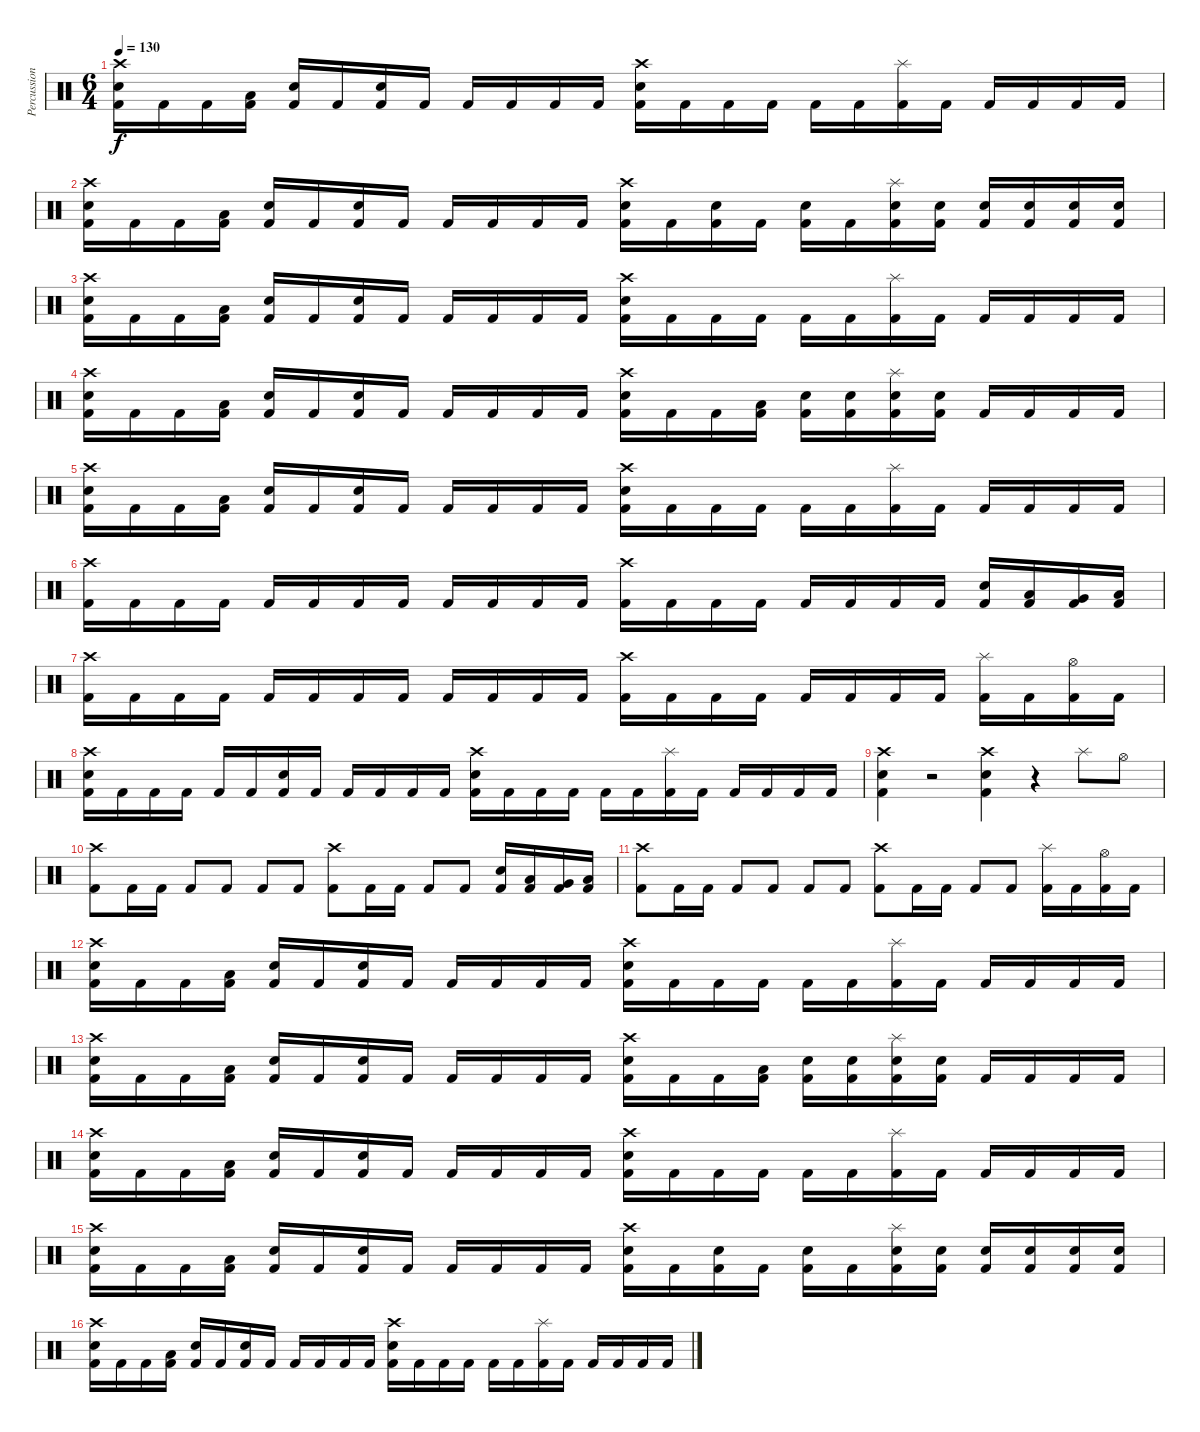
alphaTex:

\track ("Percussion" "Percussion") {instrument percussion}
\staff {score}
\articulation defaults
\ts (6 4)
\tempo 130
\clef neutral
\ks c
("Crash high (hit)" "Snare (hit) 2" "Kick (hit) 2").16{dy f} "Kick (hit) 2".16 "Kick (hit) 2".16 ("Low Tom (hit)" "Kick (hit) 2").16 ("Snare (hit) 2" "Kick (hit) 2").16 "Kick (hit) 2".16 ("Snare (hit) 2" "Kick (hit) 2").16 "Kick (hit) 2".16 "Kick (hit) 2".16 "Kick (hit) 2".16 "Kick (hit) 2".16 "Kick (hit) 2".16 ("Crash high (hit)" "Snare (hit) 2" "Kick (hit) 2").16 "Kick (hit) 2".16 "Kick (hit) 2".16 "Kick (hit) 2".16 "Kick (hit) 2".16 "Kick (hit) 2".16 ("Splash (hit)" "Kick (hit) 2").16 "Kick (hit) 2".16 "Kick (hit) 2".16 "Kick (hit) 2".16 "Kick (hit) 2".16 "Kick (hit) 2".16 |
("Crash high (hit)" "Snare (hit) 2" "Kick (hit) 2").16 "Kick (hit) 2".16 "Kick (hit) 2".16 ("Low Tom (hit)" "Kick (hit) 2").16 ("Snare (hit) 2" "Kick (hit) 2").16 "Kick (hit) 2".16 ("Snare (hit) 2" "Kick (hit) 2").16 "Kick (hit) 2".16 "Kick (hit) 2".16 "Kick (hit) 2".16 "Kick (hit) 2".16 "Kick (hit) 2".16 ("Crash high (hit)" "Snare (hit) 2" "Kick (hit) 2").16 "Kick (hit) 2".16 ("Snare (hit) 2" "Kick (hit) 2").16 "Kick (hit) 2".16 ("Snare (hit) 2" "Kick (hit) 2").16 "Kick (hit) 2".16 ("Splash (hit)" "Snare (hit) 2" "Kick (hit) 2").16 ("Electric Snare (hit)" "Kick (hit) 2").16 ("Snare (hit) 2" "Kick (hit) 2").16 ("Electric Snare (hit)" "Kick (hit) 2").16 ("Snare (hit) 2" "Kick (hit) 2").16 ("Electric Snare (hit)" "Kick (hit) 2").16 |
("Crash high (hit)" "Snare (hit) 2" "Kick (hit) 2").16 "Kick (hit) 2".16 "Kick (hit) 2".16 ("Low Tom (hit)" "Kick (hit) 2").16 ("Snare (hit) 2" "Kick (hit) 2").16 "Kick (hit) 2".16 ("Snare (hit) 2" "Kick (hit) 2").16 "Kick (hit) 2".16 "Kick (hit) 2".16 "Kick (hit) 2".16 "Kick (hit) 2".16 "Kick (hit) 2".16 ("Crash high (hit)" "Snare (hit) 2" "Kick (hit) 2").16 "Kick (hit) 2".16 "Kick (hit) 2".16 "Kick (hit) 2".16 "Kick (hit) 2".16 "Kick (hit) 2".16 ("Splash (hit)" "Kick (hit) 2").16 "Kick (hit) 2".16 "Kick (hit) 2".16 "Kick (hit) 2".16 "Kick (hit) 2".16 "Kick (hit) 2".16 |
("Crash high (hit)" "Snare (hit) 2" "Kick (hit) 2").16 "Kick (hit) 2".16 "Kick (hit) 2".16 ("Low Tom (hit)" "Kick (hit) 2").16 ("Snare (hit) 2" "Kick (hit) 2").16 "Kick (hit) 2".16 ("Snare (hit) 2" "Kick (hit) 2").16 "Kick (hit) 2".16 "Kick (hit) 2".16 "Kick (hit) 2".16 "Kick (hit) 2".16 "Kick (hit) 2".16 ("Crash high (hit)" "Snare (hit) 2" "Kick (hit) 2").16 "Kick (hit) 2".16 "Kick (hit) 2".16 ("Low Tom (hit)" "Kick (hit) 2").16 ("Snare (hit) 2" "Kick (hit) 2").16 ("Electric Snare (hit)" "Kick (hit) 2").16 ("Splash (hit)" "Snare (hit) 2" "Kick (hit) 2").16 ("Electric Snare (hit)" "Kick (hit) 2").16 "Kick (hit) 2".16 "Kick (hit) 2".16 "Kick (hit) 2".16 "Kick (hit) 2".16 |
("Crash high (hit)" "Snare (hit) 2" "Kick (hit) 2").16 "Kick (hit) 2".16 "Kick (hit) 2".16 ("Low Tom (hit)" "Kick (hit) 2").16 ("Snare (hit) 2" "Kick (hit) 2").16 "Kick (hit) 2".16 ("Snare (hit) 2" "Kick (hit) 2").16 "Kick (hit) 2".16 "Kick (hit) 2".16 "Kick (hit) 2".16 "Kick (hit) 2".16 "Kick (hit) 2".16 ("Crash high (hit)" "Snare (hit) 2" "Kick (hit) 2").16 "Kick (hit) 2".16 "Kick (hit) 2".16 "Kick (hit) 2".16 "Kick (hit) 2".16 "Kick (hit) 2".16 ("Splash (hit)" "Kick (hit) 2").16 "Kick (hit) 2".16 "Kick (hit) 2".16 "Kick (hit) 2".16 "Kick (hit) 2".16 "Kick (hit) 2".16 |
("Crash high (hit)" "Kick (hit) 2").16 "Kick (hit) 2".16 "Kick (hit) 2".16 "Kick (hit) 2".16 "Kick (hit) 2".16 "Kick (hit) 2".16 "Kick (hit) 2".16 "Kick (hit) 2".16 "Kick (hit) 2".16 "Kick (hit) 2".16 "Kick (hit) 2".16 "Kick (hit) 2".16 ("Crash high (hit)" "Kick (hit) 2").16 "Kick (hit) 2".16 "Kick (hit) 2".16 "Kick (hit) 2".16 "Kick (hit) 2".16 "Kick (hit) 2".16 "Kick (hit) 2".16 "Kick (hit) 2".16 ("Electric Snare (hit)" "Kick (hit) 2").16 ("Low Tom (hit)" "Kick (hit) 2").16 ("Very Low Tom (hit)" "Kick (hit) 2").16 ("Low Floor Tom (hit)" "Kick (hit) 2").16 |
("Crash high (hit)" "Kick (hit) 2").16 "Kick (hit) 2".16 "Kick (hit) 2".16 "Kick (hit) 2".16 "Kick (hit) 2".16 "Kick (hit) 2".16 "Kick (hit) 2".16 "Kick (hit) 2".16 "Kick (hit) 2".16 "Kick (hit) 2".16 "Kick (hit) 2".16 "Kick (hit) 2".16 ("Crash high (hit)" "Kick (hit) 2").16 "Kick (hit) 2".16 "Kick (hit) 2".16 "Kick (hit) 2".16 "Kick (hit) 2".16 "Kick (hit) 2".16 "Kick (hit) 2".16 "Kick (hit) 2".16 ("Splash (hit)" "Kick (hit) 2").16 "Kick (hit) 2".16 ("Hi-Hat (open)" "Kick (hit) 2").16 "Kick (hit) 2".16 |
("Crash high (hit)" "Snare (hit) 2" "Kick (hit) 2").16 "Kick (hit) 2".16 "Kick (hit) 2".16 "Kick (hit) 2".16 "Kick (hit) 2".16 "Kick (hit) 2".16 ("Snare (hit) 2" "Kick (hit) 2").16 "Kick (hit) 2".16 "Kick (hit) 2".16 "Kick (hit) 2".16 "Kick (hit) 2".16 "Kick (hit) 2".16 ("Crash high (hit)" "Snare (hit) 2" "Kick (hit) 2").16 "Kick (hit) 2".16 "Kick (hit) 2".16 "Kick (hit) 2".16 "Kick (hit) 2".16 "Kick (hit) 2".16 ("Splash (hit)" "Kick (hit) 2").16 "Kick (hit) 2".16 "Kick (hit) 2".16 "Kick (hit) 2".16 "Kick (hit) 2".16 "Kick (hit) 2".16 |
("Crash high (hit)" "Snare (hit) 2" "Kick (hit) 2").4 r.2 ("Crash high (hit)" "Snare (hit) 2" "Kick (hit) 2").4 r.4 "Splash (hit)".8 "Hi-Hat (open)".8 |
("Crash high (hit)" "Kick (hit) 2").8 "Kick (hit) 2".16 "Kick (hit) 2".16 "Kick (hit) 2".8 "Kick (hit) 2".8 "Kick (hit) 2".8 "Kick (hit) 2".8 ("Crash high (hit)" "Kick (hit) 2").8 "Kick (hit) 2".16 "Kick (hit) 2".16 "Kick (hit) 2".8 "Kick (hit) 2".8 ("Electric Snare (hit)" "Kick (hit) 2").16 ("Low Tom (hit)" "Kick (hit) 2").16 ("Very Low Tom (hit)" "Kick (hit) 2").16 ("Low Floor Tom (hit)" "Kick (hit) 2").16 |
("Crash high (hit)" "Kick (hit) 2").8 "Kick (hit) 2".16 "Kick (hit) 2".16 "Kick (hit) 2".8 "Kick (hit) 2".8 "Kick (hit) 2".8 "Kick (hit) 2".8 ("Crash high (hit)" "Kick (hit) 2").8 "Kick (hit) 2".16 "Kick (hit) 2".16 "Kick (hit) 2".8 "Kick (hit) 2".8 ("Splash (hit)" "Kick (hit) 2").16 "Kick (hit) 2".16 ("Hi-Hat (open)" "Kick (hit) 2").16 "Kick (hit) 2".16 |
("Crash high (hit)" "Snare (hit) 2" "Kick (hit) 2").16 "Kick (hit) 2".16 "Kick (hit) 2".16 ("Low Tom (hit)" "Kick (hit) 2").16 ("Snare (hit) 2" "Kick (hit) 2").16 "Kick (hit) 2".16 ("Snare (hit) 2" "Kick (hit) 2").16 "Kick (hit) 2".16 "Kick (hit) 2".16 "Kick (hit) 2".16 "Kick (hit) 2".16 "Kick (hit) 2".16 ("Crash high (hit)" "Snare (hit) 2" "Kick (hit) 2").16 "Kick (hit) 2".16 "Kick (hit) 2".16 "Kick (hit) 2".16 "Kick (hit) 2".16 "Kick (hit) 2".16 ("Splash (hit)" "Kick (hit) 2").16 "Kick (hit) 2".16 "Kick (hit) 2".16 "Kick (hit) 2".16 "Kick (hit) 2".16 "Kick (hit) 2".16 |
("Crash high (hit)" "Snare (hit) 2" "Kick (hit) 2").16 "Kick (hit) 2".16 "Kick (hit) 2".16 ("Low Tom (hit)" "Kick (hit) 2").16 ("Snare (hit) 2" "Kick (hit) 2").16 "Kick (hit) 2".16 ("Snare (hit) 2" "Kick (hit) 2").16 "Kick (hit) 2".16 "Kick (hit) 2".16 "Kick (hit) 2".16 "Kick (hit) 2".16 "Kick (hit) 2".16 ("Crash high (hit)" "Snare (hit) 2" "Kick (hit) 2").16 "Kick (hit) 2".16 "Kick (hit) 2".16 ("Low Tom (hit)" "Kick (hit) 2").16 ("Snare (hit) 2" "Kick (hit) 2").16 ("Electric Snare (hit)" "Kick (hit) 2").16 ("Splash (hit)" "Snare (hit) 2" "Kick (hit) 2").16 ("Electric Snare (hit)" "Kick (hit) 2").16 "Kick (hit) 2".16 "Kick (hit) 2".16 "Kick (hit) 2".16 "Kick (hit) 2".16 |
("Crash high (hit)" "Snare (hit) 2" "Kick (hit) 2").16 "Kick (hit) 2".16 "Kick (hit) 2".16 ("Low Tom (hit)" "Kick (hit) 2").16 ("Snare (hit) 2" "Kick (hit) 2").16 "Kick (hit) 2".16 ("Snare (hit) 2" "Kick (hit) 2").16 "Kick (hit) 2".16 "Kick (hit) 2".16 "Kick (hit) 2".16 "Kick (hit) 2".16 "Kick (hit) 2".16 ("Crash high (hit)" "Snare (hit) 2" "Kick (hit) 2").16 "Kick (hit) 2".16 "Kick (hit) 2".16 "Kick (hit) 2".16 "Kick (hit) 2".16 "Kick (hit) 2".16 ("Splash (hit)" "Kick (hit) 2").16 "Kick (hit) 2".16 "Kick (hit) 2".16 "Kick (hit) 2".16 "Kick (hit) 2".16 "Kick (hit) 2".16 |
("Crash high (hit)" "Snare (hit) 2" "Kick (hit) 2").16 "Kick (hit) 2".16 "Kick (hit) 2".16 ("Low Tom (hit)" "Kick (hit) 2").16 ("Snare (hit) 2" "Kick (hit) 2").16 "Kick (hit) 2".16 ("Snare (hit) 2" "Kick (hit) 2").16 "Kick (hit) 2".16 "Kick (hit) 2".16 "Kick (hit) 2".16 "Kick (hit) 2".16 "Kick (hit) 2".16 ("Crash high (hit)" "Snare (hit) 2" "Kick (hit) 2").16 "Kick (hit) 2".16 ("Snare (hit) 2" "Kick (hit) 2").16 "Kick (hit) 2".16 ("Snare (hit) 2" "Kick (hit) 2").16 "Kick (hit) 2".16 ("Splash (hit)" "Snare (hit) 2" "Kick (hit) 2").16 ("Electric Snare (hit)" "Kick (hit) 2").16 ("Snare (hit) 2" "Kick (hit) 2").16 ("Electric Snare (hit)" "Kick (hit) 2").16 ("Snare (hit) 2" "Kick (hit) 2").16 ("Electric Snare (hit)" "Kick (hit) 2").16 |
("Crash high (hit)" "Snare (hit) 2" "Kick (hit) 2").16 "Kick (hit) 2".16 "Kick (hit) 2".16 ("Low Tom (hit)" "Kick (hit) 2").16 ("Snare (hit) 2" "Kick (hit) 2").16 "Kick (hit) 2".16 ("Snare (hit) 2" "Kick (hit) 2").16 "Kick (hit) 2".16 "Kick (hit) 2".16 "Kick (hit) 2".16 "Kick (hit) 2".16 "Kick (hit) 2".16 ("Crash high (hit)" "Snare (hit) 2" "Kick (hit) 2").16 "Kick (hit) 2".16 "Kick (hit) 2".16 "Kick (hit) 2".16 "Kick (hit) 2".16 "Kick (hit) 2".16 ("Splash (hit)" "Kick (hit) 2").16 "Kick (hit) 2".16 "Kick (hit) 2".16 "Kick (hit) 2".16 "Kick (hit) 2".16 "Kick (hit) 2".16
